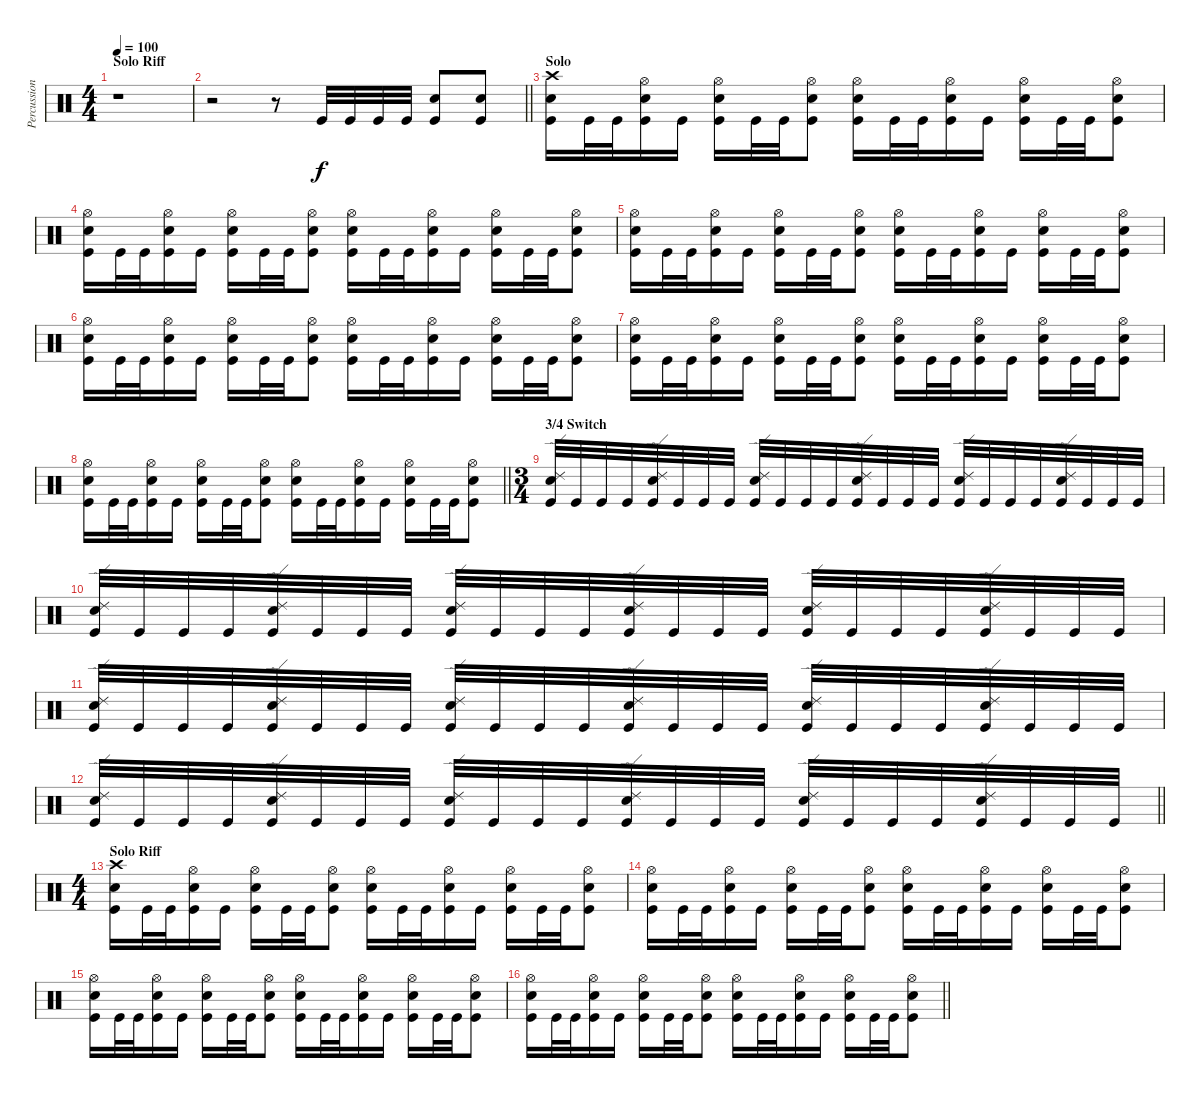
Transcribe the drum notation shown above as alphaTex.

\track ("Percussion" "Percussion") {instrument percussion}
\staff {score}
\articulation defaults
\ts (4 4)
\section ("" "Solo Riff")
\tempo 100
\clef neutral
\ks c
r.1{dy f} |
\barLineRight lightlight
r.2 r.8 "Kick (hit)".32 "Kick (hit)".32 "Kick (hit)".32 "Kick (hit)".32 ("Snare (hit) 2" "Kick (hit)").8 ("Snare (hit) 2" "Kick (hit)").8 |
\section ("" "Solo")
("Crash high (hit)" "Snare (hit) 2" "Kick (hit)").16 "Kick (hit)".32 "Kick (hit)".32 ("Hi-Hat (open)" "Snare (hit) 2" "Kick (hit)").16 "Kick (hit)".16 ("Hi-Hat (open)" "Snare (hit) 2" "Kick (hit)").16 "Kick (hit)".32 "Kick (hit)".32 ("Hi-Hat (open)" "Snare (hit) 2" "Kick (hit)").8 ("Hi-Hat (open)" "Snare (hit) 2" "Kick (hit)").16 "Kick (hit)".32 "Kick (hit)".32 ("Hi-Hat (open)" "Snare (hit) 2" "Kick (hit)").16 "Kick (hit)".16 ("Hi-Hat (open)" "Snare (hit) 2" "Kick (hit)").16 "Kick (hit)".32 "Kick (hit)".32 ("Hi-Hat (open)" "Snare (hit) 2" "Kick (hit)").8 |
("Hi-Hat (open)" "Snare (hit) 2" "Kick (hit)").16 "Kick (hit)".32 "Kick (hit)".32 ("Hi-Hat (open)" "Snare (hit) 2" "Kick (hit)").16 "Kick (hit)".16 ("Hi-Hat (open)" "Snare (hit) 2" "Kick (hit)").16 "Kick (hit)".32 "Kick (hit)".32 ("Hi-Hat (open)" "Snare (hit) 2" "Kick (hit)").8 ("Hi-Hat (open)" "Snare (hit) 2" "Kick (hit)").16 "Kick (hit)".32 "Kick (hit)".32 ("Hi-Hat (open)" "Snare (hit) 2" "Kick (hit)").16 "Kick (hit)".16 ("Hi-Hat (open)" "Snare (hit) 2" "Kick (hit)").16 "Kick (hit)".32 "Kick (hit)".32 ("Hi-Hat (open)" "Snare (hit) 2" "Kick (hit)").8 |
("Hi-Hat (open)" "Snare (hit) 2" "Kick (hit)").16 "Kick (hit)".32 "Kick (hit)".32 ("Hi-Hat (open)" "Snare (hit) 2" "Kick (hit)").16 "Kick (hit)".16 ("Hi-Hat (open)" "Snare (hit) 2" "Kick (hit)").16 "Kick (hit)".32 "Kick (hit)".32 ("Hi-Hat (open)" "Snare (hit) 2" "Kick (hit)").8 ("Hi-Hat (open)" "Snare (hit) 2" "Kick (hit)").16 "Kick (hit)".32 "Kick (hit)".32 ("Hi-Hat (open)" "Snare (hit) 2" "Kick (hit)").16 "Kick (hit)".16 ("Hi-Hat (open)" "Snare (hit) 2" "Kick (hit)").16 "Kick (hit)".32 "Kick (hit)".32 ("Hi-Hat (open)" "Snare (hit) 2" "Kick (hit)").8 |
("Hi-Hat (open)" "Snare (hit) 2" "Kick (hit)").16 "Kick (hit)".32 "Kick (hit)".32 ("Hi-Hat (open)" "Snare (hit) 2" "Kick (hit)").16 "Kick (hit)".16 ("Hi-Hat (open)" "Snare (hit) 2" "Kick (hit)").16 "Kick (hit)".32 "Kick (hit)".32 ("Hi-Hat (open)" "Snare (hit) 2" "Kick (hit)").8 ("Hi-Hat (open)" "Snare (hit) 2" "Kick (hit)").16 "Kick (hit)".32 "Kick (hit)".32 ("Hi-Hat (open)" "Snare (hit) 2" "Kick (hit)").16 "Kick (hit)".16 ("Hi-Hat (open)" "Snare (hit) 2" "Kick (hit)").16 "Kick (hit)".32 "Kick (hit)".32 ("Hi-Hat (open)" "Snare (hit) 2" "Kick (hit)").8 |
("Hi-Hat (open)" "Snare (hit) 2" "Kick (hit)").16 "Kick (hit)".32 "Kick (hit)".32 ("Hi-Hat (open)" "Snare (hit) 2" "Kick (hit)").16 "Kick (hit)".16 ("Hi-Hat (open)" "Snare (hit) 2" "Kick (hit)").16 "Kick (hit)".32 "Kick (hit)".32 ("Hi-Hat (open)" "Snare (hit) 2" "Kick (hit)").8 ("Hi-Hat (open)" "Snare (hit) 2" "Kick (hit)").16 "Kick (hit)".32 "Kick (hit)".32 ("Hi-Hat (open)" "Snare (hit) 2" "Kick (hit)").16 "Kick (hit)".16 ("Hi-Hat (open)" "Snare (hit) 2" "Kick (hit)").16 "Kick (hit)".32 "Kick (hit)".32 ("Hi-Hat (open)" "Snare (hit) 2" "Kick (hit)").8 |
\barLineRight lightlight
("Hi-Hat (open)" "Snare (hit) 2" "Kick (hit)").16 "Kick (hit)".32 "Kick (hit)".32 ("Hi-Hat (open)" "Snare (hit) 2" "Kick (hit)").16 "Kick (hit)".16 ("Hi-Hat (open)" "Snare (hit) 2" "Kick (hit)").16 "Kick (hit)".32 "Kick (hit)".32 ("Hi-Hat (open)" "Snare (hit) 2" "Kick (hit)").8 ("Hi-Hat (open)" "Snare (hit) 2" "Kick (hit)").16 "Kick (hit)".32 "Kick (hit)".32 ("Hi-Hat (open)" "Snare (hit) 2" "Kick (hit)").16 "Kick (hit)".16 ("Hi-Hat (open)" "Snare (hit) 2" "Kick (hit)").16 "Kick (hit)".32 "Kick (hit)".32 ("Hi-Hat (open)" "Snare (hit) 2" "Kick (hit)").8 |
\ts (3 4)
\section ("" "3/4 Switch")
("Ride (edge) 2" "Snare (hit) 2" "Kick (hit)").32 "Kick (hit)".32 "Kick (hit)".32 "Kick (hit)".32 ("Ride (edge) 2" "Snare (hit) 2" "Kick (hit)").32 "Kick (hit)".32 "Kick (hit)".32 "Kick (hit)".32 ("Ride (edge) 2" "Snare (hit) 2" "Kick (hit)").32 "Kick (hit)".32 "Kick (hit)".32 "Kick (hit)".32 ("Ride (edge) 2" "Snare (hit) 2" "Kick (hit)").32 "Kick (hit)".32 "Kick (hit)".32 "Kick (hit)".32 ("Ride (edge) 2" "Snare (hit) 2" "Kick (hit)").32 "Kick (hit)".32 "Kick (hit)".32 "Kick (hit)".32 ("Ride (edge) 2" "Snare (hit) 2" "Kick (hit)").32 "Kick (hit)".32 "Kick (hit)".32 "Kick (hit)".32 |
("Ride (edge) 2" "Snare (hit) 2" "Kick (hit)").32 "Kick (hit)".32 "Kick (hit)".32 "Kick (hit)".32 ("Ride (edge) 2" "Snare (hit) 2" "Kick (hit)").32 "Kick (hit)".32 "Kick (hit)".32 "Kick (hit)".32 ("Ride (edge) 2" "Snare (hit) 2" "Kick (hit)").32 "Kick (hit)".32 "Kick (hit)".32 "Kick (hit)".32 ("Ride (edge) 2" "Snare (hit) 2" "Kick (hit)").32 "Kick (hit)".32 "Kick (hit)".32 "Kick (hit)".32 ("Ride (edge) 2" "Snare (hit) 2" "Kick (hit)").32 "Kick (hit)".32 "Kick (hit)".32 "Kick (hit)".32 ("Ride (edge) 2" "Snare (hit) 2" "Kick (hit)").32 "Kick (hit)".32 "Kick (hit)".32 "Kick (hit)".32 |
("Ride (edge) 2" "Snare (hit) 2" "Kick (hit)").32 "Kick (hit)".32 "Kick (hit)".32 "Kick (hit)".32 ("Ride (edge) 2" "Snare (hit) 2" "Kick (hit)").32 "Kick (hit)".32 "Kick (hit)".32 "Kick (hit)".32 ("Ride (edge) 2" "Snare (hit) 2" "Kick (hit)").32 "Kick (hit)".32 "Kick (hit)".32 "Kick (hit)".32 ("Ride (edge) 2" "Snare (hit) 2" "Kick (hit)").32 "Kick (hit)".32 "Kick (hit)".32 "Kick (hit)".32 ("Ride (edge) 2" "Snare (hit) 2" "Kick (hit)").32 "Kick (hit)".32 "Kick (hit)".32 "Kick (hit)".32 ("Ride (edge) 2" "Snare (hit) 2" "Kick (hit)").32 "Kick (hit)".32 "Kick (hit)".32 "Kick (hit)".32 |
\barLineRight lightlight
("Ride (edge) 2" "Snare (hit) 2" "Kick (hit)").32 "Kick (hit)".32 "Kick (hit)".32 "Kick (hit)".32 ("Ride (edge) 2" "Snare (hit) 2" "Kick (hit)").32 "Kick (hit)".32 "Kick (hit)".32 "Kick (hit)".32 ("Ride (edge) 2" "Snare (hit) 2" "Kick (hit)").32 "Kick (hit)".32 "Kick (hit)".32 "Kick (hit)".32 ("Ride (edge) 2" "Snare (hit) 2" "Kick (hit)").32 "Kick (hit)".32 "Kick (hit)".32 "Kick (hit)".32 ("Ride (edge) 2" "Snare (hit) 2" "Kick (hit)").32 "Kick (hit)".32 "Kick (hit)".32 "Kick (hit)".32 ("Ride (edge) 2" "Snare (hit) 2" "Kick (hit)").32 "Kick (hit)".32 "Kick (hit)".32 "Kick (hit)".32 |
\ts (4 4)
\section ("" "Solo Riff")
("Crash high (hit)" "Snare (hit) 2" "Kick (hit)").16 "Kick (hit)".32 "Kick (hit)".32 ("Hi-Hat (open)" "Snare (hit) 2" "Kick (hit)").16 "Kick (hit)".16 ("Hi-Hat (open)" "Snare (hit) 2" "Kick (hit)").16 "Kick (hit)".32 "Kick (hit)".32 ("Hi-Hat (open)" "Snare (hit) 2" "Kick (hit)").8 ("Hi-Hat (open)" "Snare (hit) 2" "Kick (hit)").16 "Kick (hit)".32 "Kick (hit)".32 ("Hi-Hat (open)" "Snare (hit) 2" "Kick (hit)").16 "Kick (hit)".16 ("Hi-Hat (open)" "Snare (hit) 2" "Kick (hit)").16 "Kick (hit)".32 "Kick (hit)".32 ("Hi-Hat (open)" "Snare (hit) 2" "Kick (hit)").8 |
("Hi-Hat (open)" "Snare (hit) 2" "Kick (hit)").16 "Kick (hit)".32 "Kick (hit)".32 ("Hi-Hat (open)" "Snare (hit) 2" "Kick (hit)").16 "Kick (hit)".16 ("Hi-Hat (open)" "Snare (hit) 2" "Kick (hit)").16 "Kick (hit)".32 "Kick (hit)".32 ("Hi-Hat (open)" "Snare (hit) 2" "Kick (hit)").8 ("Hi-Hat (open)" "Snare (hit) 2" "Kick (hit)").16 "Kick (hit)".32 "Kick (hit)".32 ("Hi-Hat (open)" "Snare (hit) 2" "Kick (hit)").16 "Kick (hit)".16 ("Hi-Hat (open)" "Snare (hit) 2" "Kick (hit)").16 "Kick (hit)".32 "Kick (hit)".32 ("Hi-Hat (open)" "Snare (hit) 2" "Kick (hit)").8 |
("Hi-Hat (open)" "Snare (hit) 2" "Kick (hit)").16 "Kick (hit)".32 "Kick (hit)".32 ("Hi-Hat (open)" "Snare (hit) 2" "Kick (hit)").16 "Kick (hit)".16 ("Hi-Hat (open)" "Snare (hit) 2" "Kick (hit)").16 "Kick (hit)".32 "Kick (hit)".32 ("Hi-Hat (open)" "Snare (hit) 2" "Kick (hit)").8 ("Hi-Hat (open)" "Snare (hit) 2" "Kick (hit)").16 "Kick (hit)".32 "Kick (hit)".32 ("Hi-Hat (open)" "Snare (hit) 2" "Kick (hit)").16 "Kick (hit)".16 ("Hi-Hat (open)" "Snare (hit) 2" "Kick (hit)").16 "Kick (hit)".32 "Kick (hit)".32 ("Hi-Hat (open)" "Snare (hit) 2" "Kick (hit)").8 |
\barLineRight lightlight
("Hi-Hat (open)" "Snare (hit) 2" "Kick (hit)").16 "Kick (hit)".32 "Kick (hit)".32 ("Hi-Hat (open)" "Snare (hit) 2" "Kick (hit)").16 "Kick (hit)".16 ("Hi-Hat (open)" "Snare (hit) 2" "Kick (hit)").16 "Kick (hit)".32 "Kick (hit)".32 ("Hi-Hat (open)" "Snare (hit) 2" "Kick (hit)").8 ("Hi-Hat (open)" "Snare (hit) 2" "Kick (hit)").16 "Kick (hit)".32 "Kick (hit)".32 ("Hi-Hat (open)" "Snare (hit) 2" "Kick (hit)").16 "Kick (hit)".16 ("Hi-Hat (open)" "Snare (hit) 2" "Kick (hit)").16 "Kick (hit)".32 "Kick (hit)".32 ("Hi-Hat (open)" "Snare (hit) 2" "Kick (hit)").8
